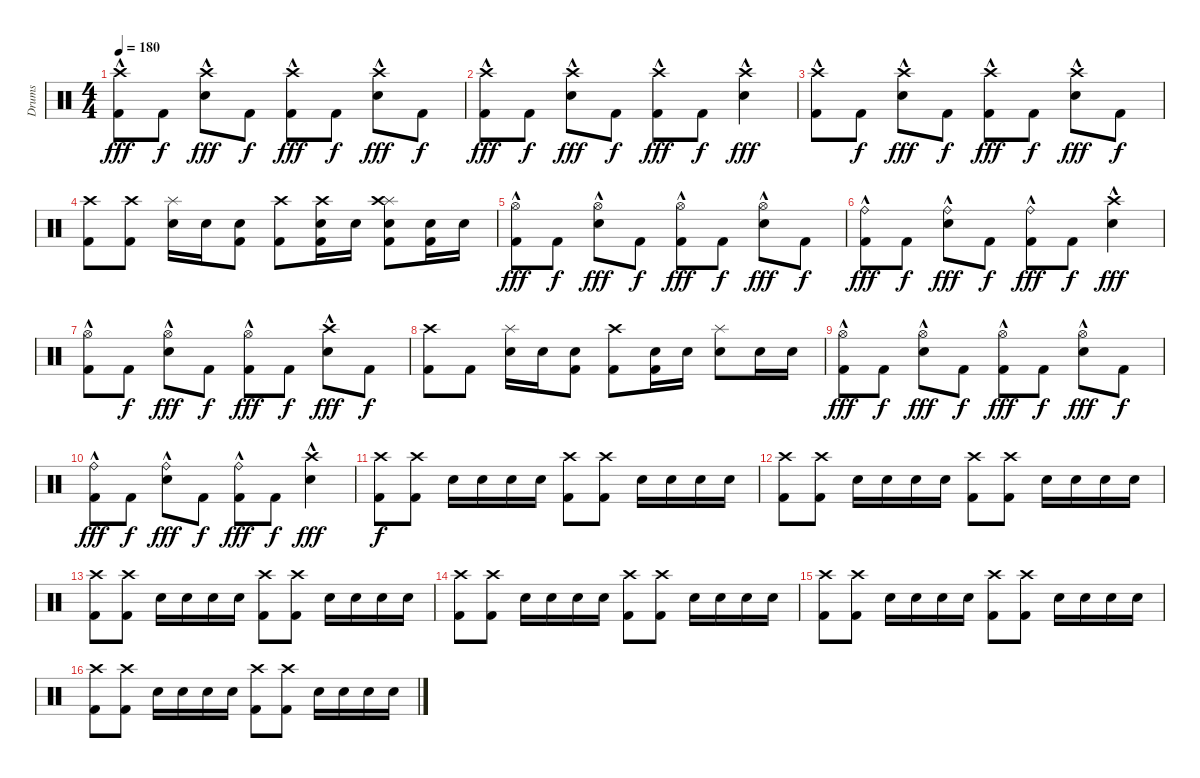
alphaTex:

\track ("Drums" "Drums") {instrument percussion}
\staff {score}
\articulation defaults
\ts (4 4)
\tempo 180
\clef neutral
\ks c
("Kick (hit) 2" "Crash high (hit)"{hac}).8{dy fff} "Kick (hit) 2".8{dy f} ("Electric Snare (hit)" "Crash high (hit)"{hac}).8{dy fff} "Kick (hit) 2".8{dy f} ("Kick (hit) 2" "Crash high (hit)"{hac}).8{dy fff} "Kick (hit) 2".8{dy f} ("Electric Snare (hit)" "Crash high (hit)"{hac}).8{dy fff} "Kick (hit) 2".8{dy f} |
("Kick (hit) 2" "Crash high (hit)"{hac}).8{dy fff} "Kick (hit) 2".8{dy f} ("Electric Snare (hit)" "Crash high (hit)"{hac}).8{dy fff} "Kick (hit) 2".8{dy f} ("Kick (hit) 2" "Crash high (hit)"{hac}).8{dy fff} "Kick (hit) 2".8{dy f} ("Electric Snare (hit)" "Crash high (hit)"{hac}).4{dy fff} |
("Kick (hit) 2" "Crash high (hit)"{hac}).8 "Kick (hit) 2".8{dy f} ("Electric Snare (hit)" "Crash high (hit)"{hac}).8{dy fff} "Kick (hit) 2".8{dy f} ("Kick (hit) 2" "Crash high (hit)"{hac}).8{dy fff} "Kick (hit) 2".8{dy f} ("Electric Snare (hit)" "Crash high (hit)"{hac}).8{dy fff} "Kick (hit) 2".8{dy f} |
("Kick (hit) 2" "Crash high (hit)").8 ("Kick (hit) 2" "Crash high (hit)").8 ("Electric Snare (hit)" "Splash (hit)").16 "Electric Snare (hit)".16 ("Kick (hit) 2" "Electric Snare (hit)").8 ("Kick (hit) 2" "Crash high (hit)").8 ("Kick (hit) 2" "Electric Snare (hit)" "Crash high (hit)").16 "Electric Snare (hit)".16 ("Kick (hit) 2" "Electric Snare (hit)" "Splash (hit)" "Crash high (hit)").8 ("Kick (hit) 2" "Electric Snare (hit)").16 "Electric Snare (hit)".16 |
("Kick (hit) 2" "Hi-Hat (open)"{hac}).8{dy fff} "Kick (hit) 2".8{dy f} ("Electric Snare (hit)" "Hi-Hat (open)"{hac}).8{dy fff} "Kick (hit) 2".8{dy f} ("Kick (hit) 2" "Hi-Hat (open)"{hac}).8{dy fff} "Kick (hit) 2".8{dy f} ("Electric Snare (hit)" "Hi-Hat (open)"{hac}).8{dy fff} "Kick (hit) 2".8{dy f} |
("Kick (hit) 2" "Ride (bell)"{hac}).8{dy fff} "Kick (hit) 2".8{dy f} ("Electric Snare (hit)" "Ride (bell)"{hac}).8{dy fff} "Kick (hit) 2".8{dy f} ("Kick (hit) 2" "Ride (bell)"{hac}).8{dy fff} "Kick (hit) 2".8{dy f} ("Electric Snare (hit)" "Crash high (hit)"{hac}).4{dy fff} |
("Kick (hit) 2" "Hi-Hat (open)"{hac}).8 "Kick (hit) 2".8{dy f} ("Electric Snare (hit)" "Hi-Hat (open)"{hac}).8{dy fff} "Kick (hit) 2".8{dy f} ("Kick (hit) 2" "Hi-Hat (open)"{hac}).8{dy fff} "Kick (hit) 2".8{dy f} ("Electric Snare (hit)" "Crash high (hit)"{hac}).8{dy fff} "Kick (hit) 2".8{dy f} |
("Kick (hit) 2" "Crash high (hit)").8 "Kick (hit) 2".8 ("Electric Snare (hit)" "Splash (hit)").16 "Electric Snare (hit)".16 ("Kick (hit) 2" "Electric Snare (hit)").8 ("Kick (hit) 2" "Crash high (hit)").8 ("Kick (hit) 2" "Electric Snare (hit)").16 "Electric Snare (hit)".16 ("Electric Snare (hit)" "Splash (hit)").8 "Electric Snare (hit)".16 "Electric Snare (hit)".16 |
("Kick (hit) 2" "Hi-Hat (open)"{hac}).8{dy fff} "Kick (hit) 2".8{dy f} ("Electric Snare (hit)" "Hi-Hat (open)"{hac}).8{dy fff} "Kick (hit) 2".8{dy f} ("Kick (hit) 2" "Hi-Hat (open)"{hac}).8{dy fff} "Kick (hit) 2".8{dy f} ("Electric Snare (hit)" "Hi-Hat (open)"{hac}).8{dy fff} "Kick (hit) 2".8{dy f} |
("Kick (hit) 2" "Ride (bell)"{hac}).8{dy fff} "Kick (hit) 2".8{dy f} ("Electric Snare (hit)" "Ride (bell)"{hac}).8{dy fff} "Kick (hit) 2".8{dy f} ("Kick (hit) 2" "Ride (bell)"{hac}).8{dy fff} "Kick (hit) 2".8{dy f} ("Electric Snare (hit)" "Crash high (hit)"{hac}).4{dy fff} |
("Kick (hit) 2" "Crash high (hit)").8{dy f} ("Kick (hit) 2" "Crash high (hit)").8 "Electric Snare (hit)".16 "Electric Snare (hit)".16 "Electric Snare (hit)".16 "Electric Snare (hit)".16 ("Kick (hit) 2" "Crash high (hit)").8 ("Kick (hit) 2" "Crash high (hit)").8 "Electric Snare (hit)".16 "Electric Snare (hit)".16 "Electric Snare (hit)".16 "Electric Snare (hit)".16 |
("Kick (hit) 2" "Crash high (hit)").8 ("Kick (hit) 2" "Crash high (hit)").8 "Electric Snare (hit)".16 "Electric Snare (hit)".16 "Electric Snare (hit)".16 "Electric Snare (hit)".16 ("Kick (hit) 2" "Crash high (hit)").8 ("Kick (hit) 2" "Crash high (hit)").8 "Electric Snare (hit)".16 "Electric Snare (hit)".16 "Electric Snare (hit)".16 "Electric Snare (hit)".16 |
("Kick (hit) 2" "Crash high (hit)").8 ("Kick (hit) 2" "Crash high (hit)").8 "Electric Snare (hit)".16 "Electric Snare (hit)".16 "Electric Snare (hit)".16 "Electric Snare (hit)".16 ("Kick (hit) 2" "Crash high (hit)").8 ("Kick (hit) 2" "Crash high (hit)").8 "Electric Snare (hit)".16 "Electric Snare (hit)".16 "Electric Snare (hit)".16 "Electric Snare (hit)".16 |
("Kick (hit) 2" "Crash high (hit)").8 ("Kick (hit) 2" "Crash high (hit)").8 "Electric Snare (hit)".16 "Electric Snare (hit)".16 "Electric Snare (hit)".16 "Electric Snare (hit)".16 ("Kick (hit) 2" "Crash high (hit)").8 ("Kick (hit) 2" "Crash high (hit)").8 "Electric Snare (hit)".16 "Electric Snare (hit)".16 "Electric Snare (hit)".16 "Electric Snare (hit)".16 |
("Kick (hit) 2" "Crash high (hit)").8 ("Kick (hit) 2" "Crash high (hit)").8 "Electric Snare (hit)".16 "Electric Snare (hit)".16 "Electric Snare (hit)".16 "Electric Snare (hit)".16 ("Kick (hit) 2" "Crash high (hit)").8 ("Kick (hit) 2" "Crash high (hit)").8 "Electric Snare (hit)".16 "Electric Snare (hit)".16 "Electric Snare (hit)".16 "Electric Snare (hit)".16 |
("Kick (hit) 2" "Crash high (hit)").8 ("Kick (hit) 2" "Crash high (hit)").8 "Electric Snare (hit)".16 "Electric Snare (hit)".16 "Electric Snare (hit)".16 "Electric Snare (hit)".16 ("Kick (hit) 2" "Crash high (hit)").8 ("Kick (hit) 2" "Crash high (hit)").8 "Electric Snare (hit)".16 "Electric Snare (hit)".16 "Electric Snare (hit)".16 "Electric Snare (hit)".16
